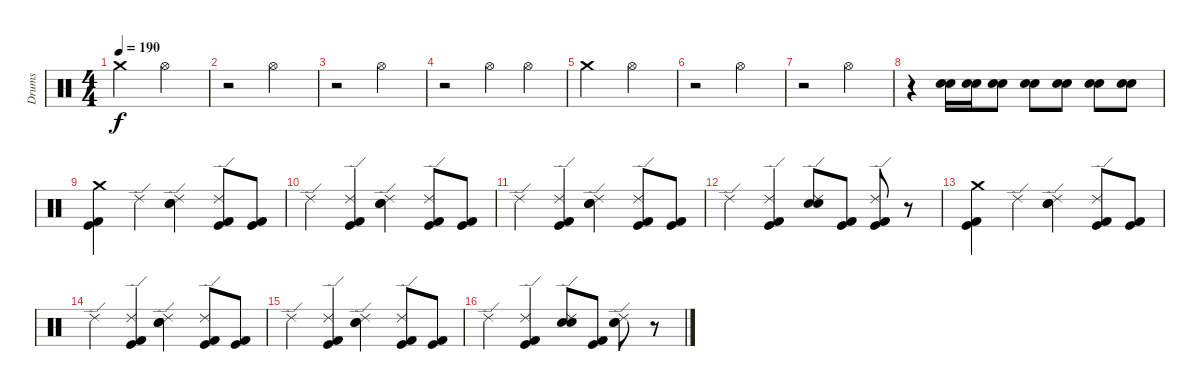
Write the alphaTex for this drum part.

\track ("Drums" "Drums") {instrument percussion}
\staff {score}
\articulation defaults
\ts (4 4)
\tempo 190
\clef neutral
\ks c "Crash medium (hit)".2{dy f} "Hi-Hat (open)".2
|
r.2 "Hi-Hat (open)".2 |
r.2 "Hi-Hat (open)".2 |
r.2 "Hi-Hat (open)".4 "Hi-Hat (open)".4 |
"Crash medium (hit)".2 "Hi-Hat (open)".2 |
r.2 "Hi-Hat (open)".2 |
r.2 "Hi-Hat (open)".2 |
r.4 ("Snare (hit) 2" "Snare (hit) 2").16 ("Snare (hit) 2" "Snare (hit) 2").16 ("Snare (hit) 2" "Snare (hit) 2").8 ("Snare (hit) 2" "Snare (hit) 2").8 ("Snare (hit) 2" "Snare (hit) 2").8 ("Snare (hit) 2" "Snare (hit) 2").8 ("Snare (hit) 2" "Snare (hit) 2").8 |
("Crash medium (hit)" "Kick (hit) 2" "Kick (hit)").4 "Ride (edge) 2".4 ("Ride (edge) 2" "Snare (hit) 2" "Snare (hit) 2").4 ("Ride (edge) 2" "Kick (hit) 2" "Kick (hit)").8 ("Kick (hit) 2" "Kick (hit)").8 |
"Ride (edge) 2".4 ("Ride (edge) 2" "Kick (hit) 2" "Kick (hit)").4 ("Ride (edge) 2" "Snare (hit) 2" "Snare (hit) 2").4 ("Ride (edge) 2" "Kick (hit) 2" "Kick (hit)").8 ("Kick (hit) 2" "Kick (hit)").8 |
"Ride (edge) 2".4 ("Ride (edge) 2" "Kick (hit) 2" "Kick (hit)").4 ("Ride (edge) 2" "Snare (hit) 2" "Snare (hit) 2").4 ("Ride (edge) 2" "Kick (hit) 2" "Kick (hit)").8 ("Kick (hit) 2" "Kick (hit)").8 |
"Ride (edge) 2".4 ("Ride (edge) 2" "Kick (hit) 2" "Kick (hit)").4 ("Ride (edge) 2" "Snare (hit) 2" "Snare (hit) 2").8 ("Kick (hit) 2" "Kick (hit)").8 ("Ride (edge) 2" "Kick (hit) 2" "Kick (hit)").8 r.8 |
("Crash medium (hit)" "Kick (hit) 2" "Kick (hit)").4 "Ride (edge) 2".4 ("Ride (edge) 2" "Snare (hit) 2" "Snare (hit) 2").4 ("Ride (edge) 2" "Kick (hit) 2" "Kick (hit)").8 ("Kick (hit) 2" "Kick (hit)").8 |
"Ride (edge) 2".4 ("Ride (edge) 2" "Kick (hit) 2" "Kick (hit)").4 ("Ride (edge) 2" "Snare (hit) 2" "Snare (hit) 2").4 ("Ride (edge) 2" "Kick (hit) 2" "Kick (hit)").8 ("Kick (hit) 2" "Kick (hit)").8 |
"Ride (edge) 2".4 ("Ride (edge) 2" "Kick (hit) 2" "Kick (hit)").4 ("Ride (edge) 2" "Snare (hit) 2" "Snare (hit) 2").4 ("Ride (edge) 2" "Kick (hit) 2" "Kick (hit)").8 ("Kick (hit) 2" "Kick (hit)").8 |
"Ride (edge) 2".4 ("Ride (edge) 2" "Kick (hit) 2" "Kick (hit)").4 ("Ride (edge) 2" "Snare (hit) 2" "Snare (hit) 2").8 ("Kick (hit) 2" "Kick (hit)").8 ("Ride (edge) 2" "Snare (hit) 2" "Snare (hit) 2").8 r.8
